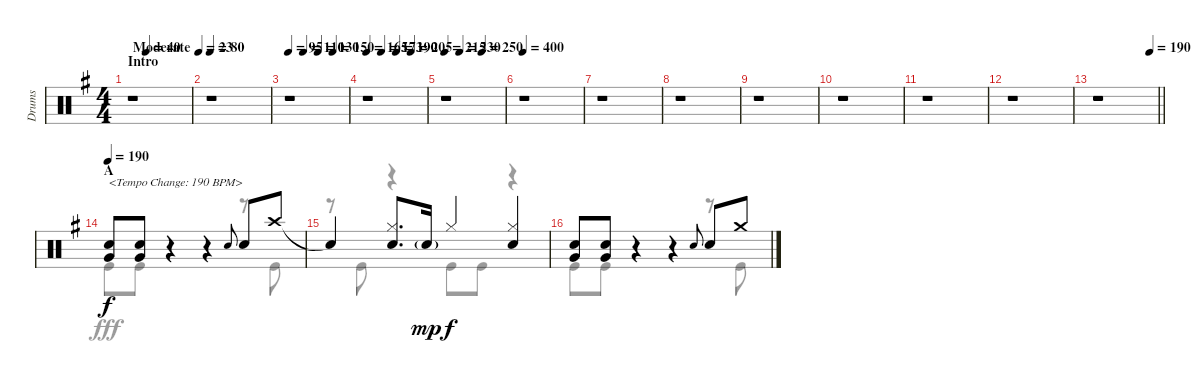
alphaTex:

\track ("Drums" "Drums") {instrument percussion}
\staff {score}
\articulation defaults
\voice
\ts (4 4)
\section ("" "Intro")
\tempo (23 "Moderate")
\tempo (40 0.25)
\tempo (23 "Moderate")
\clef neutral
\ks g
r.1{dy f} |
\tempo 80
r.1 |
\tempo 95
\tempo (110 0.25)
\tempo (130 0.5)
\tempo (150 0.75)
r.1 |
\tempo 165
\tempo (173 0.25)
\tempo (190 0.5)
\tempo (205 0.75)
r.1 |
\tempo 215
\tempo (230 0.25)
\tempo (250 0.625)
r.1 |
\tempo 400
r.1 |
r.1 |
r.1 |
r.1 |
r.1 |
r.1 |
r.1 |
\tempo (190 0.875)
\barLineRight lightlight
r.1 |
\section ("" "A")
\tempo 190
("Snare (hit) 2" "Very Low Tom (hit)").8{txt "<Tempo Change: 190 BPM>"} ("Snare (hit) 2" "Very Low Tom (hit)").8 r.4 r.4 "Snare (hit) 2".8{gr onbeat} "Snare (hit) 2".8 "Crash high (hit)".8 |
"Snare (hit)"{t}.4 ("Hi-Hat (closed)" "Snare (hit) 2").8{d} "Snare (hit) 2"{g}.16{dy mp} "Hi-Hat (closed)".4{dy f} ("Hi-Hat (closed)" "Snare (hit) 2").4 |
("Snare (hit) 2" "Very Low Tom (hit)").8 ("Snare (hit) 2" "Very Low Tom (hit)").8 r.4 r.4 "Snare (hit) 2".8{gr onbeat} "Snare (hit) 2".8 "Crash medium (hit)".8
\voice
\clef neutral
\ottava regular
\simile none
\ks g
r.1{dy fff} |
r.1 |
r.1 |
r.1 |
r.1 |
r.1 |
r.1 |
r.1 |
r.1 |
r.1 |
r.1 |
r.1 |
\barLineRight lightlight
r.1 |
"Kick (hit)".8 "Kick (hit)".8 r.4 r.4 r.8 "Kick (hit)".8 |
r.8 "Kick (hit)".8 r.4 "Kick (hit)".8 "Kick (hit)".8 r.4 |
"Kick (hit)".8 "Kick (hit)".8 r.4 r.4 r.8 "Kick (hit)".8
